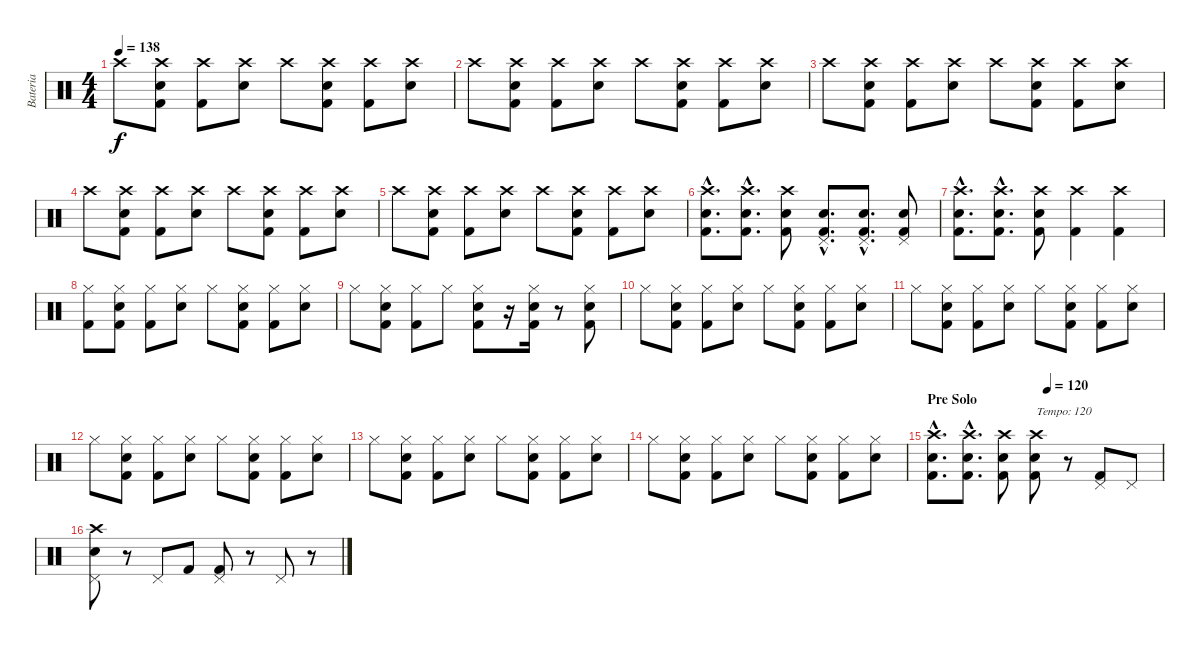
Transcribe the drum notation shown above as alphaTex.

\track ("Bateria" "Bateria") {instrument percussion}
\staff {score}
\articulation defaults
\ts (4 4)
\tempo 138
\clef neutral
\ks c "Crash high (hit)".8{dy f}
("Electric Snare (hit)" "Crash high (hit)" "Kick (hit) 2").8 ("Crash high (hit)" "Kick (hit) 2").8 ("Electric Snare (hit)" "Crash high (hit)").8 "Crash high (hit)".8 ("Electric Snare (hit)" "Crash high (hit)" "Kick (hit) 2").8 ("Crash high (hit)" "Kick (hit) 2").8 ("Electric Snare (hit)" "Crash high (hit)").8 |
"Crash high (hit)".8 ("Electric Snare (hit)" "Crash high (hit)" "Kick (hit) 2").8 ("Crash high (hit)" "Kick (hit) 2").8 ("Electric Snare (hit)" "Crash high (hit)").8 "Crash high (hit)".8 ("Electric Snare (hit)" "Crash high (hit)" "Kick (hit) 2").8 ("Crash high (hit)" "Kick (hit) 2").8 ("Electric Snare (hit)" "Crash high (hit)").8 |
"Crash high (hit)".8 ("Electric Snare (hit)" "Crash high (hit)" "Kick (hit) 2").8 ("Crash high (hit)" "Kick (hit) 2").8 ("Electric Snare (hit)" "Crash high (hit)").8 "Crash high (hit)".8 ("Electric Snare (hit)" "Crash high (hit)" "Kick (hit) 2").8 ("Crash high (hit)" "Kick (hit) 2").8 ("Electric Snare (hit)" "Crash high (hit)").8 |
"Crash high (hit)".8 ("Electric Snare (hit)" "Crash high (hit)" "Kick (hit) 2").8 ("Crash high (hit)" "Kick (hit) 2").8 ("Electric Snare (hit)" "Crash high (hit)").8 "Crash high (hit)".8 ("Electric Snare (hit)" "Crash high (hit)" "Kick (hit) 2").8 ("Crash high (hit)" "Kick (hit) 2").8 ("Electric Snare (hit)" "Crash high (hit)").8 |
"Crash high (hit)".8 ("Electric Snare (hit)" "Crash high (hit)" "Kick (hit) 2").8 ("Crash high (hit)" "Kick (hit) 2").8 ("Electric Snare (hit)" "Crash high (hit)").8 "Crash high (hit)".8 ("Electric Snare (hit)" "Crash high (hit)" "Kick (hit) 2").8 ("Crash high (hit)" "Kick (hit) 2").8 ("Electric Snare (hit)" "Crash high (hit)").8 |
("Electric Snare (hit)"{hac} "Crash high (hit)"{hac} "Kick (hit) 2"{hac}).8{d} ("Electric Snare (hit)"{hac} "Crash high (hit)"{hac} "Kick (hit) 2"{hac}).8{d} ("Electric Snare (hit)" "Crash high (hit)" "Kick (hit) 2").8 ("Electric Snare (hit)"{hac} "Pedal Hi-Hat (hit)"{hac} "Kick (hit) 2"{hac}).8{d} ("Electric Snare (hit)"{hac} "Pedal Hi-Hat (hit)"{hac} "Kick (hit) 2"{hac}).8{d} ("Electric Snare (hit)" "Pedal Hi-Hat (hit)" "Kick (hit) 2").8 |
("Electric Snare (hit)"{hac} "Crash high (hit)"{hac} "Kick (hit) 2"{hac}).8{d} ("Electric Snare (hit)"{hac} "Crash high (hit)"{hac} "Kick (hit) 2"{hac}).8{d} ("Electric Snare (hit)" "Crash high (hit)" "Kick (hit) 2").8 ("Crash high (hit)" "Kick (hit) 2").4 ("Crash high (hit)" "Kick (hit) 2").4 |
("Hi-Hat (closed)" "Kick (hit) 2").8 ("Electric Snare (hit)" "Hi-Hat (closed)" "Kick (hit) 2").8 ("Hi-Hat (closed)" "Kick (hit) 2").8 ("Electric Snare (hit)" "Hi-Hat (closed)").8 "Hi-Hat (closed)".8 ("Electric Snare (hit)" "Hi-Hat (closed)" "Kick (hit) 2").8 ("Hi-Hat (closed)" "Kick (hit) 2").8 ("Electric Snare (hit)" "Hi-Hat (closed)").8 |
"Hi-Hat (closed)".8 ("Electric Snare (hit)" "Hi-Hat (closed)" "Kick (hit) 2").8 ("Hi-Hat (closed)" "Kick (hit) 2").8 "Hi-Hat (closed)".8 ("Electric Snare (hit)" "Hi-Hat (closed)" "Kick (hit) 2").8 r.16 ("Electric Snare (hit)" "Hi-Hat (closed)" "Kick (hit) 2").16 r.8 ("Electric Snare (hit)" "Hi-Hat (closed)" "Kick (hit) 2").8 |
"Hi-Hat (closed)".8 ("Electric Snare (hit)" "Hi-Hat (closed)" "Kick (hit) 2").8 ("Hi-Hat (closed)" "Kick (hit) 2").8 ("Electric Snare (hit)" "Hi-Hat (closed)").8 "Hi-Hat (closed)".8 ("Electric Snare (hit)" "Hi-Hat (closed)" "Kick (hit) 2").8 ("Hi-Hat (closed)" "Kick (hit) 2").8 ("Electric Snare (hit)" "Hi-Hat (closed)").8 |
"Hi-Hat (closed)".8 ("Electric Snare (hit)" "Hi-Hat (closed)" "Kick (hit) 2").8 ("Hi-Hat (closed)" "Kick (hit) 2").8 ("Electric Snare (hit)" "Hi-Hat (closed)").8 "Hi-Hat (closed)".8 ("Electric Snare (hit)" "Hi-Hat (closed)" "Kick (hit) 2").8 ("Hi-Hat (closed)" "Kick (hit) 2").8 ("Electric Snare (hit)" "Hi-Hat (closed)").8 |
"Hi-Hat (closed)".8 ("Electric Snare (hit)" "Hi-Hat (closed)" "Kick (hit) 2").8 ("Hi-Hat (closed)" "Kick (hit) 2").8 ("Electric Snare (hit)" "Hi-Hat (closed)").8 "Hi-Hat (closed)".8 ("Electric Snare (hit)" "Hi-Hat (closed)" "Kick (hit) 2").8 ("Hi-Hat (closed)" "Kick (hit) 2").8 ("Electric Snare (hit)" "Hi-Hat (closed)").8 |
"Hi-Hat (closed)".8 ("Electric Snare (hit)" "Hi-Hat (closed)" "Kick (hit) 2").8 ("Hi-Hat (closed)" "Kick (hit) 2").8 ("Electric Snare (hit)" "Hi-Hat (closed)").8 "Hi-Hat (closed)".8 ("Electric Snare (hit)" "Hi-Hat (closed)" "Kick (hit) 2").8 ("Hi-Hat (closed)" "Kick (hit) 2").8 ("Electric Snare (hit)" "Hi-Hat (closed)").8 |
"Hi-Hat (closed)".8 ("Electric Snare (hit)" "Hi-Hat (closed)" "Kick (hit) 2").8 ("Hi-Hat (closed)" "Kick (hit) 2").8 ("Electric Snare (hit)" "Hi-Hat (closed)").8 "Hi-Hat (closed)".8 ("Electric Snare (hit)" "Hi-Hat (closed)" "Kick (hit) 2").8 ("Hi-Hat (closed)" "Kick (hit) 2").8 ("Electric Snare (hit)" "Hi-Hat (closed)").8 |
\section ("" "Pre Solo")
\tempo (120 0.5)
("Electric Snare (hit)"{hac} "Crash high (hit)"{hac} "Kick (hit) 2"{hac}).8{d} ("Crash high (hit)"{hac} "Electric Snare (hit)"{hac} "Kick (hit) 2"{hac}).8{d} ("Crash high (hit)" "Electric Snare (hit)" "Kick (hit) 2").8 ("Crash high (hit)" "Electric Snare (hit)" "Kick (hit) 2").8{txt "Tempo: 120"} r.8 ("Pedal Hi-Hat (hit)" "Kick (hit) 2").8 "Pedal Hi-Hat (hit)".8 |
("Pedal Hi-Hat (hit)" "Crash high (hit)" "Electric Snare (hit)").8 r.8 "Pedal Hi-Hat (hit)".8 "Kick (hit) 2".8 ("Pedal Hi-Hat (hit)" "Kick (hit) 2").8 r.8 "Pedal Hi-Hat (hit)".8 r.8
